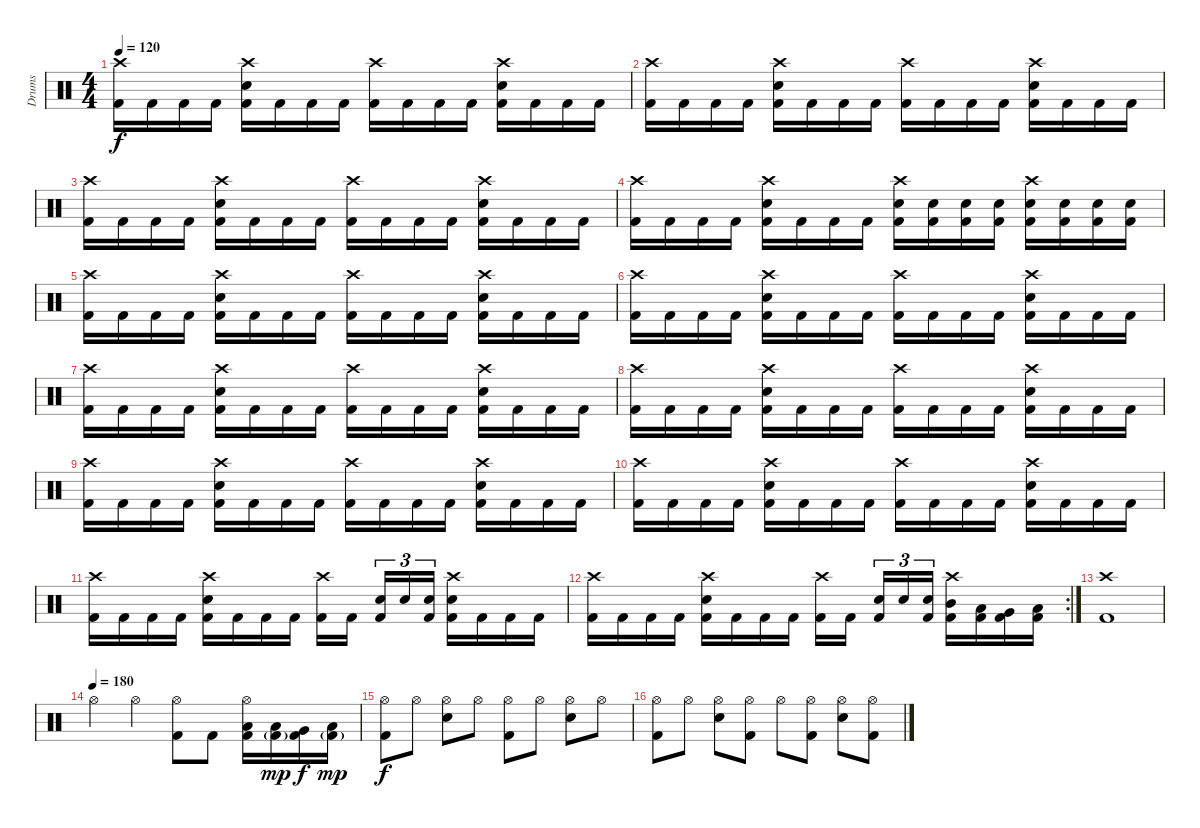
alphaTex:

\track ("Drums" "Drums") {instrument percussion}
\staff {score}
\articulation defaults
\ts (4 4)
\tempo 120
\clef neutral
\ks c
("Crash high (hit)" "Kick (hit) 2").16{dy f} "Kick (hit) 2".16 "Kick (hit) 2".16 "Kick (hit) 2".16 ("Crash high (hit)" "Snare (hit) 2" "Kick (hit) 2").16 "Kick (hit) 2".16 "Kick (hit) 2".16 "Kick (hit) 2".16 ("Crash high (hit)" "Kick (hit) 2").16 "Kick (hit) 2".16 "Kick (hit) 2".16 "Kick (hit) 2".16 ("Crash high (hit)" "Snare (hit) 2" "Kick (hit) 2").16 "Kick (hit) 2".16 "Kick (hit) 2".16 "Kick (hit) 2".16 |
("Crash high (hit)" "Kick (hit) 2").16 "Kick (hit) 2".16 "Kick (hit) 2".16 "Kick (hit) 2".16 ("Crash high (hit)" "Snare (hit) 2" "Kick (hit) 2").16 "Kick (hit) 2".16 "Kick (hit) 2".16 "Kick (hit) 2".16 ("Crash high (hit)" "Kick (hit) 2").16 "Kick (hit) 2".16 "Kick (hit) 2".16 "Kick (hit) 2".16 ("Crash high (hit)" "Snare (hit) 2" "Kick (hit) 2").16 "Kick (hit) 2".16 "Kick (hit) 2".16 "Kick (hit) 2".16 |
("Crash high (hit)" "Kick (hit) 2").16 "Kick (hit) 2".16 "Kick (hit) 2".16 "Kick (hit) 2".16 ("Crash high (hit)" "Snare (hit) 2" "Kick (hit) 2").16 "Kick (hit) 2".16 "Kick (hit) 2".16 "Kick (hit) 2".16 ("Crash high (hit)" "Kick (hit) 2").16 "Kick (hit) 2".16 "Kick (hit) 2".16 "Kick (hit) 2".16 ("Crash high (hit)" "Snare (hit) 2" "Kick (hit) 2").16 "Kick (hit) 2".16 "Kick (hit) 2".16 "Kick (hit) 2".16 |
("Crash high (hit)" "Kick (hit) 2").16 "Kick (hit) 2".16 "Kick (hit) 2".16 "Kick (hit) 2".16 ("Crash high (hit)" "Snare (hit) 2" "Kick (hit) 2").16 "Kick (hit) 2".16 "Kick (hit) 2".16 "Kick (hit) 2".16 ("Crash high (hit)" "Snare (hit) 2" "Kick (hit) 2").16 ("Snare (hit) 2" "Kick (hit) 2").16 ("Snare (hit) 2" "Kick (hit) 2").16 ("Snare (hit) 2" "Kick (hit) 2").16 ("Crash high (hit)" "Snare (hit) 2" "Kick (hit) 2").16 ("Snare (hit) 2" "Kick (hit) 2").16 ("Snare (hit) 2" "Kick (hit) 2").16 ("Snare (hit) 2" "Kick (hit) 2").16 |
("Crash high (hit)" "Kick (hit) 2").16 "Kick (hit) 2".16 "Kick (hit) 2".16 "Kick (hit) 2".16 ("Crash high (hit)" "Snare (hit) 2" "Kick (hit) 2").16 "Kick (hit) 2".16 "Kick (hit) 2".16 "Kick (hit) 2".16 ("Crash high (hit)" "Kick (hit) 2").16 "Kick (hit) 2".16 "Kick (hit) 2".16 "Kick (hit) 2".16 ("Crash high (hit)" "Snare (hit) 2" "Kick (hit) 2").16 "Kick (hit) 2".16 "Kick (hit) 2".16 "Kick (hit) 2".16 |
("Crash high (hit)" "Kick (hit) 2").16 "Kick (hit) 2".16 "Kick (hit) 2".16 "Kick (hit) 2".16 ("Crash high (hit)" "Snare (hit) 2" "Kick (hit) 2").16 "Kick (hit) 2".16 "Kick (hit) 2".16 "Kick (hit) 2".16 ("Crash high (hit)" "Kick (hit) 2").16 "Kick (hit) 2".16 "Kick (hit) 2".16 "Kick (hit) 2".16 ("Crash high (hit)" "Snare (hit) 2" "Kick (hit) 2").16 "Kick (hit) 2".16 "Kick (hit) 2".16 "Kick (hit) 2".16 |
("Crash high (hit)" "Kick (hit) 2").16 "Kick (hit) 2".16 "Kick (hit) 2".16 "Kick (hit) 2".16 ("Crash high (hit)" "Snare (hit) 2" "Kick (hit) 2").16 "Kick (hit) 2".16 "Kick (hit) 2".16 "Kick (hit) 2".16 ("Crash high (hit)" "Kick (hit) 2").16 "Kick (hit) 2".16 "Kick (hit) 2".16 "Kick (hit) 2".16 ("Crash high (hit)" "Snare (hit) 2" "Kick (hit) 2").16 "Kick (hit) 2".16 "Kick (hit) 2".16 "Kick (hit) 2".16 |
("Crash high (hit)" "Kick (hit) 2").16 "Kick (hit) 2".16 "Kick (hit) 2".16 "Kick (hit) 2".16 ("Crash high (hit)" "Snare (hit) 2" "Kick (hit) 2").16 "Kick (hit) 2".16 "Kick (hit) 2".16 "Kick (hit) 2".16 ("Crash high (hit)" "Kick (hit) 2").16 "Kick (hit) 2".16 "Kick (hit) 2".16 "Kick (hit) 2".16 ("Crash high (hit)" "Snare (hit) 2" "Kick (hit) 2").16 "Kick (hit) 2".16 "Kick (hit) 2".16 "Kick (hit) 2".16 |
("Crash high (hit)" "Kick (hit) 2").16 "Kick (hit) 2".16 "Kick (hit) 2".16 "Kick (hit) 2".16 ("Crash high (hit)" "Snare (hit) 2" "Kick (hit) 2").16 "Kick (hit) 2".16 "Kick (hit) 2".16 "Kick (hit) 2".16 ("Crash high (hit)" "Kick (hit) 2").16 "Kick (hit) 2".16 "Kick (hit) 2".16 "Kick (hit) 2".16 ("Crash high (hit)" "Snare (hit) 2" "Kick (hit) 2").16 "Kick (hit) 2".16 "Kick (hit) 2".16 "Kick (hit) 2".16 |
("Crash high (hit)" "Kick (hit) 2").16 "Kick (hit) 2".16 "Kick (hit) 2".16 "Kick (hit) 2".16 ("Crash high (hit)" "Snare (hit) 2" "Kick (hit) 2").16 "Kick (hit) 2".16 "Kick (hit) 2".16 "Kick (hit) 2".16 ("Crash high (hit)" "Kick (hit) 2").16 "Kick (hit) 2".16 "Kick (hit) 2".16 "Kick (hit) 2".16 ("Crash high (hit)" "Snare (hit) 2" "Kick (hit) 2").16 "Kick (hit) 2".16 "Kick (hit) 2".16 "Kick (hit) 2".16 |
("Crash high (hit)" "Kick (hit) 2").16 "Kick (hit) 2".16 "Kick (hit) 2".16 "Kick (hit) 2".16 ("Crash high (hit)" "Snare (hit) 2" "Kick (hit) 2").16 "Kick (hit) 2".16 "Kick (hit) 2".16 "Kick (hit) 2".16 ("Crash high (hit)" "Kick (hit) 2").16 "Kick (hit) 2".16 ("Snare (hit) 2" "Kick (hit) 2").16{tu (3 2)} "Snare (hit) 2".16{tu (3 2)} ("Snare (hit) 2" "Kick (hit) 2").16{tu (3 2)} ("Crash high (hit)" "Snare (hit) 2" "Kick (hit) 2").16 "Kick (hit) 2".16 "Kick (hit) 2".16 "Kick (hit) 2".16 |
\rc 2
("Crash high (hit)" "Kick (hit) 2").16 "Kick (hit) 2".16 "Kick (hit) 2".16 "Kick (hit) 2".16 ("Crash high (hit)" "Snare (hit) 2" "Kick (hit) 2").16 "Kick (hit) 2".16 "Kick (hit) 2".16 "Kick (hit) 2".16 ("Crash high (hit)" "Kick (hit) 2").16 "Kick (hit) 2".16 ("Snare (hit) 2" "Kick (hit) 2").16{tu (3 2)} "Snare (hit) 2".16{tu (3 2)} ("Snare (hit) 2" "Kick (hit) 2").16{tu (3 2)} ("Crash high (hit)" "Mid Tom (hit)" "Kick (hit) 2").16 ("Low Tom (hit)" "Kick (hit) 2").16 ("Very Low Tom (hit)" "Kick (hit) 2").16 ("Low Floor Tom (hit)" "Kick (hit) 2").16 |
("Crash high (hit)" "Kick (hit) 2").1 |
\tempo (180)
"Hi-Hat (open)".4 "Hi-Hat (open)".4 ("Hi-Hat (open)" "Kick (hit) 2").8 "Kick (hit) 2".8 ("Hi-Hat (open)" "Low Tom (hit)" "Kick (hit) 2").16 ("Low Tom (hit)" "Kick (hit) 2"{g}).16{dy mp} ("Very Low Tom (hit)" "Kick (hit) 2").16{dy f} ("Low Floor Tom (hit)" "Kick (hit) 2"{g}).16{dy mp} |
("Hi-Hat (open)" "Kick (hit) 2").8{dy f} "Hi-Hat (open)".8 ("Hi-Hat (open)" "Snare (hit) 2").8 "Hi-Hat (open)".8 ("Hi-Hat (open)" "Kick (hit) 2").8 "Hi-Hat (open)".8 ("Hi-Hat (open)" "Snare (hit) 2").8 "Hi-Hat (open)".8 |
("Hi-Hat (open)" "Kick (hit) 2").8 "Hi-Hat (open)".8 ("Hi-Hat (open)" "Snare (hit) 2").8 ("Hi-Hat (open)" "Kick (hit) 2").8 "Hi-Hat (open)".8 ("Hi-Hat (open)" "Kick (hit) 2").8 ("Hi-Hat (open)" "Snare (hit) 2").8 ("Hi-Hat (open)" "Kick (hit) 2").8
